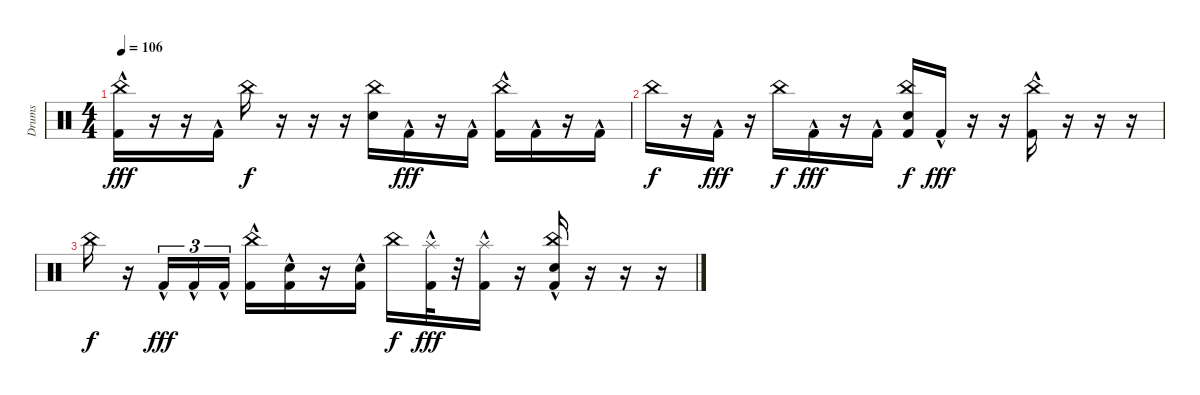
\track ("Drums" "Drums") {instrument percussion}
\staff {score}
\articulation defaults
\ts (4 4)
\tempo 106
\clef neutral
\ks c
("Kick (hit) 2"{hac} "China (hit)").16{dy fff} r.16 r.16 "Kick (hit) 2"{hac}.16 "China (hit)".16{dy f} r.16 r.16 r.16 ("Electric Snare (hit)" "China (hit)").16 "Kick (hit) 2"{hac}.16{dy fff} r.16 "Kick (hit) 2"{hac}.16 ("Kick (hit) 2"{hac} "China (hit)").16 "Kick (hit) 2"{hac}.16 r.16 "Kick (hit) 2"{hac}.16 |
"China (hit)".16{dy f} r.16 "Kick (hit) 2"{hac}.16{dy fff} r.16 "China (hit)".16{dy f} "Kick (hit) 2"{hac}.16{dy fff} r.16 "Kick (hit) 2"{hac}.16 ("Kick (hit) 2" "Electric Snare (hit)" "China (hit)").16{dy f} "Kick (hit) 2"{hac}.16{dy fff} r.16 r.16 ("Kick (hit) 2"{hac} "China (hit)").16 r.16 r.16 r.16 |
"China (hit)".16{dy f} r.16 "Kick (hit) 2"{hac}.16{tu (3 2) dy fff} "Kick (hit) 2"{hac}.16{tu (3 2)} "Kick (hit) 2"{hac}.16{tu (3 2)} ("Kick (hit) 2"{hac} "China (hit)").16 ("Kick (hit) 2"{hac} "Electric Snare (hit)").16 r.16 ("Kick (hit) 2"{hac} "Electric Snare (hit)").16 "China (hit)".16{dy f} ("Kick (hit) 2"{hac} "Splash (hit)").32{dy fff} r.32 ("Kick (hit) 2"{hac} "Splash (hit)").16 r.16 ("Kick (hit) 2"{hac} "Electric Snare (hit)" "China (hit)").16 r.16 r.16 r.16
